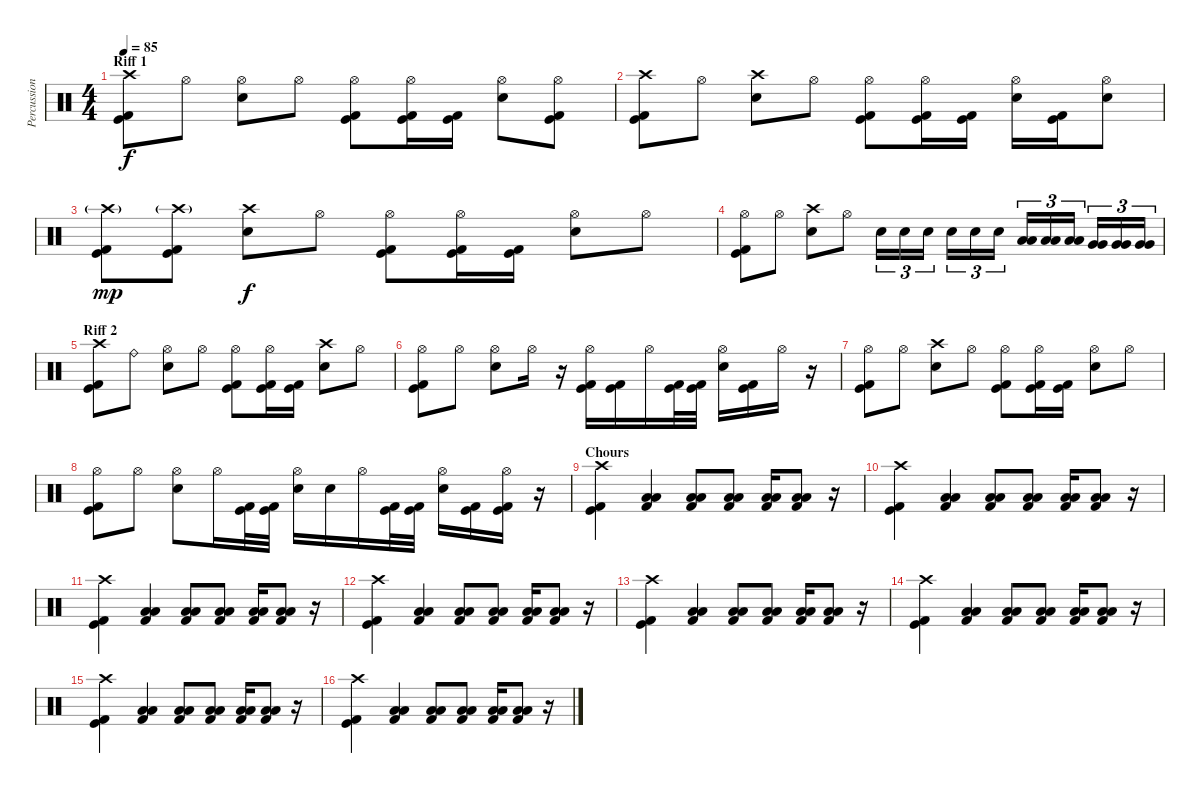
\track ("Percussion" "Percussion") {instrument percussion}
\staff {score}
\articulation defaults
\ts (4 4)
\section ("" "Riff 1")
\tempo 85
\clef neutral
\ks c
("Crash high (hit)" "Kick (hit) 2" "Kick (hit)").8{dy f} "Hi-Hat (open)".8 ("Hi-Hat (open)" "Electric Snare (hit)").8 "Hi-Hat (open)".8 ("Hi-Hat (open)" "Kick (hit) 2" "Kick (hit)").8 ("Hi-Hat (open)" "Kick (hit) 2" "Kick (hit)").16 ("Kick (hit) 2" "Kick (hit)").16 ("Hi-Hat (open)" "Electric Snare (hit)").8 ("Hi-Hat (open)" "Kick (hit) 2" "Kick (hit)").8 |
("Crash high (hit)" "Kick (hit) 2" "Kick (hit)").8 "Hi-Hat (open)".8 ("Crash high (hit)" "Electric Snare (hit)").8 "Hi-Hat (open)".8 ("Hi-Hat (open)" "Kick (hit) 2" "Kick (hit)").8 ("Hi-Hat (open)" "Kick (hit) 2" "Kick (hit)").16 ("Kick (hit) 2" "Kick (hit)").16 ("Hi-Hat (open)" "Electric Snare (hit)").16 ("Kick (hit) 2" "Kick (hit)").16 ("Hi-Hat (open)" "Electric Snare (hit)").8 |
("Crash high (hit)"{g} "Kick (hit) 2" "Kick (hit)").8{dy mp} ("Crash high (hit)"{g} "Kick (hit) 2" "Kick (hit)").8 ("Crash high (hit)" "Electric Snare (hit)").8{dy f} "Hi-Hat (open)".8 ("Hi-Hat (open)" "Kick (hit) 2" "Kick (hit)").8 ("Hi-Hat (open)" "Kick (hit) 2" "Kick (hit)").16 ("Kick (hit) 2" "Kick (hit)").16 ("Hi-Hat (open)" "Electric Snare (hit)").8 "Hi-Hat (open)".8 |
("Hi-Hat (open)" "Kick (hit) 2" "Kick (hit)").8 "Hi-Hat (open)".8 ("Crash high (hit)" "Electric Snare (hit)").8 "Hi-Hat (open)".8 "Electric Snare (hit)".16{tu (3 2)} "Electric Snare (hit)".16{tu (3 2)} "Electric Snare (hit)".16{tu (3 2)} "Electric Snare (hit)".16{tu (3 2)} "Electric Snare (hit)".16{tu (3 2)} "Electric Snare (hit)".16{tu (3 2)} ("Low Tom (hit)" "Low Tom (hit)").16{tu (3 2)} ("Low Tom (hit)" "Low Tom (hit)").16{tu (3 2)} ("Low Tom (hit)" "Low Tom (hit)").16{tu (3 2)} ("Very Low Tom (hit)" "Very Low Tom (hit)").16{tu (3 2)} ("Very Low Tom (hit)" "Very Low Tom (hit)").16{tu (3 2)} ("Very Low Tom (hit)" "Very Low Tom (hit)").16{tu (3 2)} |
\section ("" "Riff 2")
("Crash high (hit)" "Kick (hit) 2" "Kick (hit)").8 "Ride (bell)".8 ("Hi-Hat (open)" "Electric Snare (hit)").8 "Hi-Hat (open)".8 ("Hi-Hat (open)" "Kick (hit) 2" "Kick (hit)").8 ("Hi-Hat (open)" "Kick (hit) 2" "Kick (hit)").16 ("Kick (hit) 2" "Kick (hit)").16 ("Crash high (hit)" "Electric Snare (hit)").8 "Hi-Hat (open)".8 |
("Hi-Hat (open)" "Kick (hit) 2" "Kick (hit)").8 "Hi-Hat (open)".8 ("Hi-Hat (open)" "Electric Snare (hit)").8 "Hi-Hat (open)".16 r.16 ("Hi-Hat (open)" "Kick (hit) 2" "Kick (hit)").16 ("Kick (hit) 2" "Kick (hit)").16 "Hi-Hat (open)".16 ("Kick (hit) 2" "Kick (hit)").32 ("Kick (hit) 2" "Kick (hit)").32 ("Hi-Hat (open)" "Electric Snare (hit)").16 ("Kick (hit) 2" "Kick (hit)").16 "Hi-Hat (open)".16 r.16 |
("Hi-Hat (open)" "Kick (hit) 2" "Kick (hit)").8 "Hi-Hat (open)".8 ("Crash high (hit)" "Electric Snare (hit)").8 "Hi-Hat (open)".8 ("Hi-Hat (open)" "Kick (hit) 2" "Kick (hit)").8 ("Hi-Hat (open)" "Kick (hit) 2" "Kick (hit)").16 ("Kick (hit) 2" "Kick (hit)").16 ("Hi-Hat (open)" "Electric Snare (hit)").8 "Hi-Hat (open)".8 |
("Hi-Hat (open)" "Kick (hit) 2" "Kick (hit)").8 "Hi-Hat (open)".8 ("Hi-Hat (open)" "Electric Snare (hit)").8 "Hi-Hat (open)".16 ("Kick (hit) 2" "Kick (hit)").32 ("Kick (hit) 2" "Kick (hit)").32 ("Hi-Hat (open)" "Electric Snare (hit)").16 "Electric Snare (hit)".16 "Hi-Hat (open)".16 ("Kick (hit) 2" "Kick (hit)").32 ("Kick (hit) 2" "Kick (hit)").32 ("Hi-Hat (open)" "Electric Snare (hit)").16 ("Kick (hit) 2" "Kick (hit)").16 ("Hi-Hat (open)" "Kick (hit) 2" "Kick (hit)").16 r.16 |
\section ("" "Chours")
("Kick (hit) 2" "Kick (hit)" "Crash high (hit)").4 ("Low Tom (hit)" "Low Tom (hit)" "Kick (hit) 2").4 ("Low Floor Tom (hit)" "Low Floor Tom (hit)" "Kick (hit) 2").8 ("Low Tom (hit)" "Low Tom (hit)" "Kick (hit) 2").8 ("Low Floor Tom (hit)" "Low Floor Tom (hit)" "Kick (hit) 2").16 ("Low Tom (hit)" "Low Tom (hit)" "Kick (hit) 2").8 r.16 |
("Kick (hit) 2" "Kick (hit)" "Crash high (hit)").4 ("Low Tom (hit)" "Low Tom (hit)" "Kick (hit) 2").4 ("Low Floor Tom (hit)" "Low Floor Tom (hit)" "Kick (hit) 2").8 ("Low Tom (hit)" "Low Tom (hit)" "Kick (hit) 2").8 ("Low Floor Tom (hit)" "Low Floor Tom (hit)" "Kick (hit) 2").16 ("Low Tom (hit)" "Low Tom (hit)" "Kick (hit) 2").8 r.16 |
("Kick (hit) 2" "Kick (hit)" "Crash high (hit)").4 ("Low Tom (hit)" "Low Tom (hit)" "Kick (hit) 2").4 ("Low Floor Tom (hit)" "Low Floor Tom (hit)" "Kick (hit) 2").8 ("Low Tom (hit)" "Low Tom (hit)" "Kick (hit) 2").8 ("Low Floor Tom (hit)" "Low Floor Tom (hit)" "Kick (hit) 2").16 ("Low Tom (hit)" "Low Tom (hit)" "Kick (hit) 2").8 r.16 |
("Kick (hit) 2" "Kick (hit)" "Crash high (hit)").4 ("Low Tom (hit)" "Low Tom (hit)" "Kick (hit) 2").4 ("Low Floor Tom (hit)" "Low Floor Tom (hit)" "Kick (hit) 2").8 ("Low Tom (hit)" "Low Tom (hit)" "Kick (hit) 2").8 ("Low Floor Tom (hit)" "Low Floor Tom (hit)" "Kick (hit) 2").16 ("Low Tom (hit)" "Low Tom (hit)" "Kick (hit) 2").8 r.16 |
("Kick (hit) 2" "Kick (hit)" "Crash high (hit)").4 ("Low Tom (hit)" "Low Tom (hit)" "Kick (hit) 2").4 ("Low Floor Tom (hit)" "Low Floor Tom (hit)" "Kick (hit) 2").8 ("Low Tom (hit)" "Low Tom (hit)" "Kick (hit) 2").8 ("Low Floor Tom (hit)" "Low Floor Tom (hit)" "Kick (hit) 2").16 ("Low Tom (hit)" "Low Tom (hit)" "Kick (hit) 2").8 r.16 |
("Kick (hit) 2" "Kick (hit)" "Crash high (hit)").4 ("Low Tom (hit)" "Low Tom (hit)" "Kick (hit) 2").4 ("Low Floor Tom (hit)" "Low Floor Tom (hit)" "Kick (hit) 2").8 ("Low Tom (hit)" "Low Tom (hit)" "Kick (hit) 2").8 ("Low Floor Tom (hit)" "Low Floor Tom (hit)" "Kick (hit) 2").16 ("Low Tom (hit)" "Low Tom (hit)" "Kick (hit) 2").8 r.16 |
("Kick (hit) 2" "Kick (hit)" "Crash high (hit)").4 ("Low Tom (hit)" "Low Tom (hit)" "Kick (hit) 2").4 ("Low Floor Tom (hit)" "Low Floor Tom (hit)" "Kick (hit) 2").8 ("Low Tom (hit)" "Low Tom (hit)" "Kick (hit) 2").8 ("Low Floor Tom (hit)" "Low Floor Tom (hit)" "Kick (hit) 2").16 ("Low Tom (hit)" "Low Tom (hit)" "Kick (hit) 2").8 r.16 |
("Kick (hit) 2" "Kick (hit)" "Crash high (hit)").4 ("Low Tom (hit)" "Low Tom (hit)" "Kick (hit) 2").4 ("Low Floor Tom (hit)" "Low Floor Tom (hit)" "Kick (hit) 2").8 ("Low Tom (hit)" "Low Tom (hit)" "Kick (hit) 2").8 ("Low Floor Tom (hit)" "Low Floor Tom (hit)" "Kick (hit) 2").16 ("Low Tom (hit)" "Low Tom (hit)" "Kick (hit) 2").8 r.16
